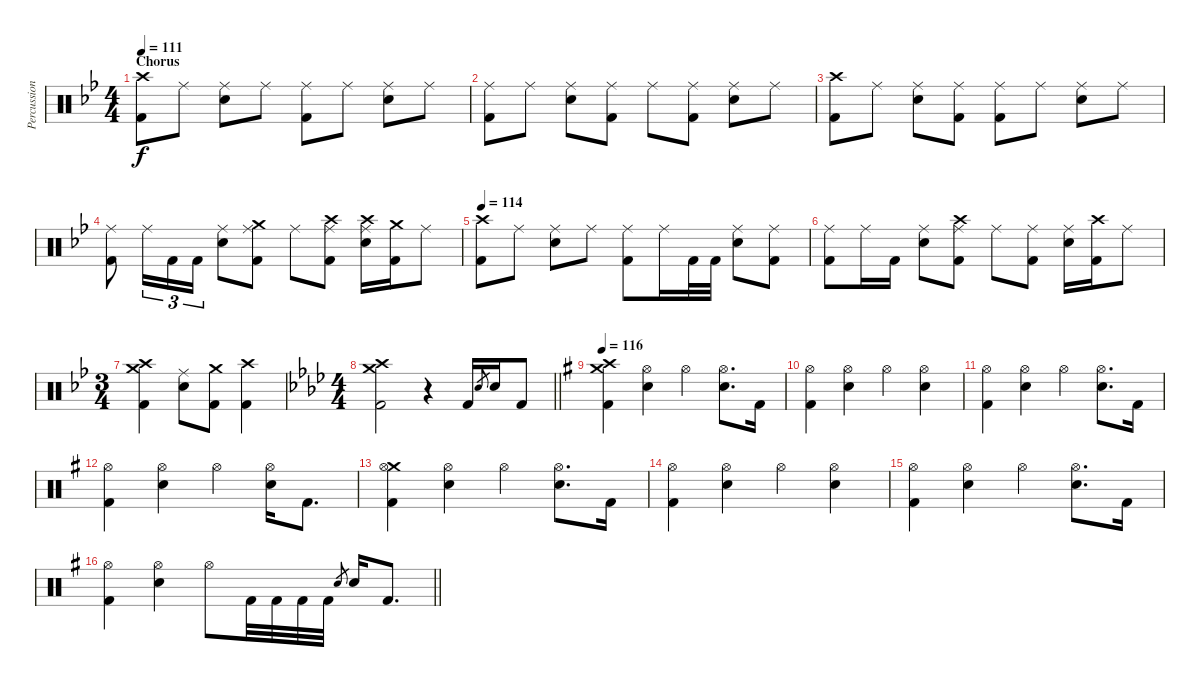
\track ("Percussions" "Percussion") {instrument percussion}
\staff {score}
\articulation defaults
\ts (4 4)
\section ("" "Chorus")
\tempo 111
\clef neutral
\ks bb
("Crash high (hit)" "Kick (hit) 2").8{dy f} "Ride (middle)".8 ("Ride (middle)" "Snare (hit) 2").8 "Ride (middle)".8 ("Ride (middle)" "Kick (hit) 2").8 "Ride (middle)".8 ("Ride (middle)" "Snare (hit) 2").8 "Ride (middle)".8 |
("Ride (middle)" "Kick (hit) 2").8 "Ride (middle)".8 ("Ride (middle)" "Snare (hit) 2").8 ("Ride (middle)" "Kick (hit) 2").8 "Ride (middle)".8 ("Ride (middle)" "Kick (hit) 2").8 ("Ride (middle)" "Snare (hit) 2").8 "Ride (middle)".8 |
("Crash high (hit)" "Kick (hit) 2").8 "Ride (middle)".8 ("Ride (middle)" "Snare (hit) 2").8 ("Ride (middle)" "Kick (hit) 2").8 ("Ride (middle)" "Kick (hit) 2").8 "Ride (middle)".8 ("Ride (middle)" "Snare (hit) 2").8 "Ride (middle)".8 |
("Ride (middle)" "Kick (hit) 2").8 "Ride (middle)".16{tu (3 2)} "Kick (hit) 2".16{tu (3 2)} "Kick (hit) 2".16{tu (3 2)} ("Ride (middle)" "Snare (hit) 2").8 ("Crash medium (hit)" "Ride (middle)" "Kick (hit) 2").8 "Ride (middle)".8 ("Crash high (hit)" "Ride (middle)" "Kick (hit) 2").8 ("Crash high (hit)" "Ride (middle)" "Snare (hit) 2").16 ("Crash medium (hit)" "Kick (hit) 2").16 "Ride (middle)".8 |
\tempo 114
("Crash high (hit)" "Kick (hit) 2").8 "Ride (middle)".8 ("Ride (middle)" "Snare (hit) 2").8 "Ride (middle)".8 ("Ride (middle)" "Kick (hit) 2").8 "Ride (middle)".16 "Kick (hit) 2".32 "Kick (hit) 2".32 ("Ride (middle)" "Snare (hit) 2").8 ("Ride (middle)" "Kick (hit) 2").8 |
("Ride (middle)" "Kick (hit) 2").8 "Ride (middle)".16 "Kick (hit) 2".16 ("Ride (middle)" "Snare (hit) 2").8 ("Crash high (hit)" "Ride (middle)" "Kick (hit) 2").8 "Ride (middle)".8 ("Ride (middle)" "Kick (hit) 2").8 ("Ride (middle)" "Snare (hit) 2").16 ("Crash high (hit)" "Kick (hit) 2").16 "Ride (middle)".8 |
\ts (3 4)
("Crash medium (hit)" "Crash high (hit)" "Kick (hit) 2").4 ("Ride (middle)" "Snare (hit) 2").8 ("Crash medium (hit)" "Kick (hit) 2").8 ("Crash high (hit)" "Kick (hit) 2").4 |
\ts (4 4)
\barLineRight lightlight
\ks ab
("Crash medium (hit)" "Crash high (hit)" "Kick (hit) 2").2 r.4 "Kick (hit) 2".16 "Snare (hit) 2".8{gr} "Snare (hit) 2".16 "Kick (hit) 2".8 |
\tempo 116
\ks g
("Crash medium (hit)" "Crash high (hit)" "Kick (hit) 2").4 ("Hi-Hat (open)" "Snare (hit) 2").4 "Hi-Hat (open)".4 ("Hi-Hat (open)" "Snare (hit) 2").8{d} "Kick (hit) 2".16 |
("Hi-Hat (open)" "Kick (hit) 2").4 ("Hi-Hat (open)" "Snare (hit) 2").4 "Hi-Hat (open)".4 ("Hi-Hat (open)" "Snare (hit) 2").4 |
("Hi-Hat (open)" "Kick (hit) 2").4 ("Hi-Hat (open)" "Snare (hit) 2").4 "Hi-Hat (open)".4 ("Hi-Hat (open)" "Snare (hit) 2").8{d} "Kick (hit) 2".16 |
("Hi-Hat (open)" "Kick (hit) 2").4 ("Hi-Hat (open)" "Snare (hit) 2").4 "Hi-Hat (open)".4 ("Hi-Hat (open)" "Snare (hit) 2").16 "Kick (hit) 2".8{d} |
("Crash medium (hit)" "Hi-Hat (open)" "Kick (hit) 2").4 ("Hi-Hat (open)" "Snare (hit) 2").4 "Hi-Hat (open)".4 ("Hi-Hat (open)" "Snare (hit) 2").8{d} "Kick (hit) 2".16 |
("Hi-Hat (open)" "Kick (hit) 2").4 ("Hi-Hat (open)" "Snare (hit) 2").4 "Hi-Hat (open)".4 ("Hi-Hat (open)" "Snare (hit) 2").4 |
("Hi-Hat (open)" "Kick (hit) 2").4 ("Hi-Hat (open)" "Snare (hit) 2").4 "Hi-Hat (open)".4 ("Hi-Hat (open)" "Snare (hit) 2").8{d} "Kick (hit) 2".16 |
\barLineRight lightlight
("Hi-Hat (open)" "Kick (hit) 2").4 ("Hi-Hat (open)" "Snare (hit) 2").4 "Hi-Hat (open)".8 "Kick (hit) 2".32 "Kick (hit) 2".32 "Kick (hit) 2".32 "Kick (hit) 2".32 "Snare (hit) 2".8{gr} "Snare (hit) 2".16 "Kick (hit) 2".8{d}
